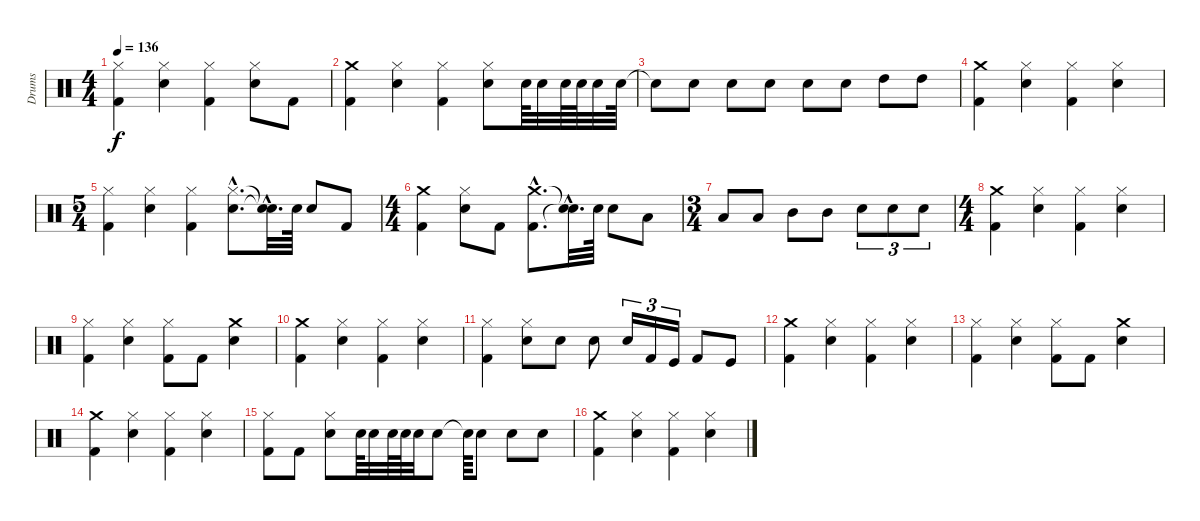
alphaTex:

\track ("Drums" "Drums") {instrument percussion}
\staff {score}
\articulation defaults
\ts (4 4)
\tempo 136
\clef neutral
\ks c
("Hi-Hat (closed)" "Kick (hit) 2").4{dy f} ("Snare (hit) 2" "Hi-Hat (closed)").4 ("Hi-Hat (closed)" "Kick (hit) 2").4 ("Snare (hit) 2" "Hi-Hat (closed)").8 "Kick (hit) 2".8 |
("Kick (hit) 2" "Crash medium (hit)").4 ("Hi-Hat (closed)" "Snare (hit) 2").4 ("Kick (hit) 2" "Hi-Hat (closed)").4 ("Hi-Hat (closed)" "Snare (hit) 2").8 "Snare (hit) 2".64 "Snare (hit) 2".32 "Snare (hit) 2".64 "Snare (hit) 2".64 "Snare (hit) 2".32 "Snare (hit) 2".64 |
"Snare (hit)"{t}.8 "Snare (hit) 2".8 "Snare (hit) 2".8 "Snare (hit) 2".8 "Snare (hit) 2".8 "Snare (hit) 2".8 "High Tom (hit)".8 "High Tom (hit)".8 |
("Kick (hit) 2" "Crash medium (hit)").4 ("Hi-Hat (closed)" "Snare (hit) 2").4 ("Kick (hit) 2" "Hi-Hat (closed)").4 ("Hi-Hat (closed)" "Snare (hit) 2").4 |
\ts (5 4)
("Kick (hit) 2" "Hi-Hat (closed)").4 ("Snare (hit) 2" "Hi-Hat (closed)").4 ("Kick (hit) 2" "Hi-Hat (closed)").4 ("Snare (hit) 2"{hac} "Hi-Hat (closed)"{hac}).8{d} ("Snare (hit)"{hac t} "Snare (hit)"{hac t}).32{d} "Snare (hit) 2".64 "Snare (hit) 2".8 "Kick (hit) 2".8 |
\ts (4 4)
("Kick (hit) 2" "Crash medium (hit)").4 ("Hi-Hat (closed)" "Snare (hit) 2").8 "Kick (hit) 2".8 ("Crash medium (hit)"{hac} "Kick (hit) 2"{hac}).8{d} ("Snare (hit)"{hac t} "Snare (hit)"{hac t}).32{d} "Snare (hit) 2".64 "Snare (hit) 2".8 "Low Tom (hit)".8 |
\ts (3 4)
"Low Tom (hit)".8 "Low Tom (hit)".8 "Mid Tom (hit)".8 "Mid Tom (hit)".8 "Snare (hit) 2".8{tu (3 2)} "Snare (hit) 2".8{tu (3 2)} "Snare (hit) 2".8{tu (3 2)} |
\ts (4 4)
("Kick (hit) 2" "Crash medium (hit)").4 ("Hi-Hat (closed)" "Snare (hit) 2").4 ("Kick (hit) 2" "Hi-Hat (closed)").4 ("Hi-Hat (closed)" "Snare (hit) 2").4 |
("Hi-Hat (closed)" "Kick (hit) 2").4 ("Snare (hit) 2" "Hi-Hat (closed)").4 ("Kick (hit) 2" "Hi-Hat (closed)").8 "Kick (hit) 2".8 ("Crash medium (hit)" "Snare (hit) 2").4 |
("Kick (hit) 2" "Crash medium (hit)").4 ("Hi-Hat (closed)" "Snare (hit) 2").4 ("Kick (hit) 2" "Hi-Hat (closed)").4 ("Snare (hit) 2" "Hi-Hat (closed)").4 |
("Kick (hit) 2" "Hi-Hat (closed)").4 ("Snare (hit) 2" "Hi-Hat (closed)").8 "Snare (hit) 2".8 "Snare (hit) 2".8 "Snare (hit) 2".16{tu (3 2)} "Kick (hit) 2".16{tu (3 2)} "Kick (hit)".16{tu (3 2)} "Kick (hit) 2".8 "Kick (hit)".8 |
("Crash medium (hit)" "Kick (hit) 2").4 ("Snare (hit) 2" "Hi-Hat (closed)").4 ("Hi-Hat (closed)" "Kick (hit) 2").4 ("Snare (hit) 2" "Hi-Hat (closed)").4 |
("Hi-Hat (closed)" "Kick (hit) 2").4 ("Snare (hit) 2" "Hi-Hat (closed)").4 ("Kick (hit) 2" "Hi-Hat (closed)").8 "Kick (hit) 2".8 ("Crash medium (hit)" "Snare (hit) 2").4 |
("Kick (hit) 2" "Crash medium (hit)").4 ("Hi-Hat (closed)" "Snare (hit) 2").4 ("Kick (hit) 2" "Hi-Hat (closed)").4 ("Hi-Hat (closed)" "Snare (hit) 2").4 |
("Hi-Hat (closed)" "Kick (hit) 2").8 "Kick (hit) 2".8 ("Hi-Hat (closed)" "Snare (hit) 2").8 "Snare (hit) 2".64 "Snare (hit) 2".32 "Snare (hit) 2".64 "Snare (hit) 2".64 "Snare (hit) 2".32 "Snare (hit) 2".8 "Snare (hit)"{t}.64 "Snare (hit) 2".8 "Snare (hit) 2".8 "Snare (hit) 2".8 |
("Kick (hit) 2" "Crash medium (hit)").4 ("Hi-Hat (closed)" "Snare (hit) 2").4 ("Kick (hit) 2" "Hi-Hat (closed)").4 ("Hi-Hat (closed)" "Snare (hit) 2").4
